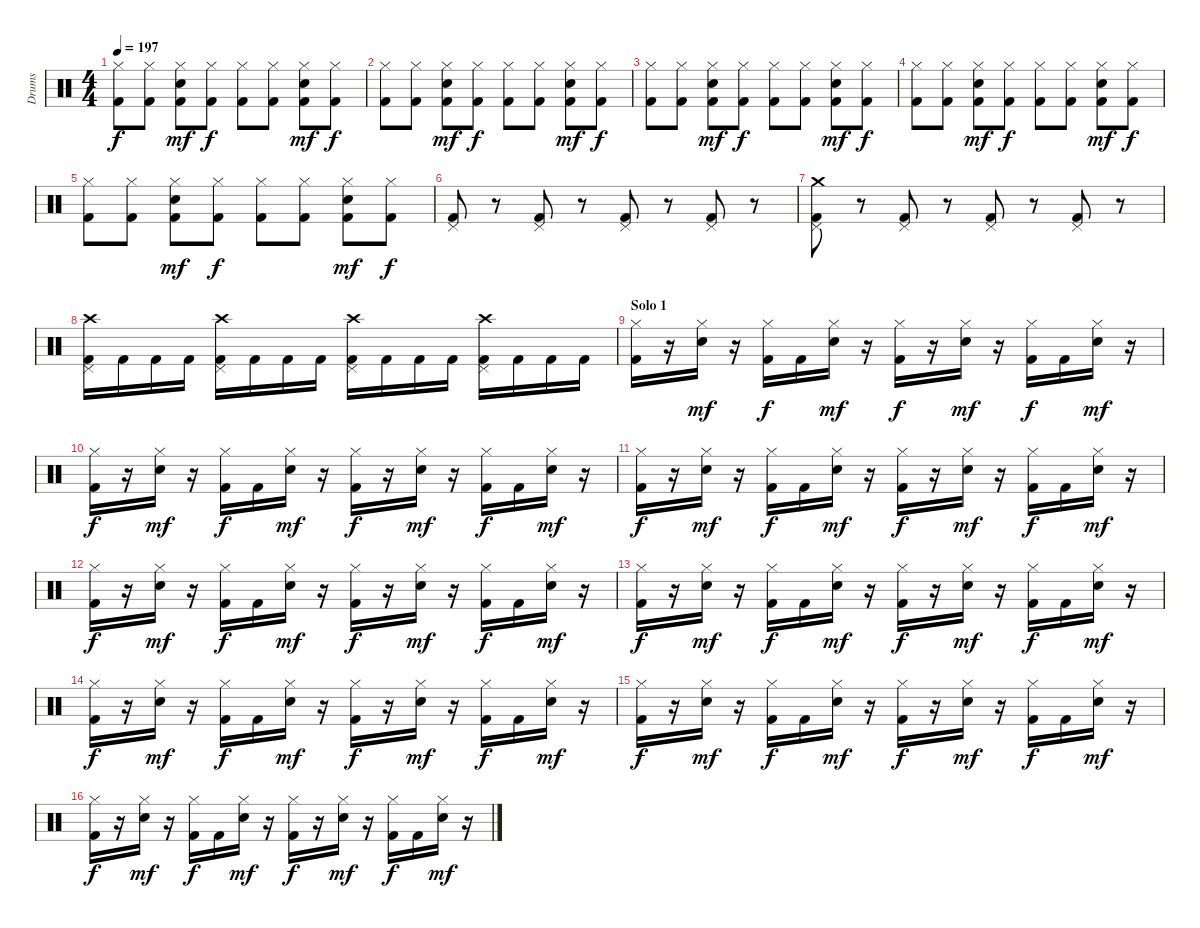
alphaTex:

\track ("Drums" "Drums") {instrument percussion}
\staff {score}
\articulation defaults
\ts (4 4)
\tempo 197
\clef neutral
\ks c
("Kick (hit) 2" "Hi-Hat (closed)").8{dy f} ("Kick (hit) 2" "Hi-Hat (closed)").8 ("Kick (hit) 2" "Snare (hit) 2" "Hi-Hat (closed)").8{dy mf} ("Kick (hit) 2" "Hi-Hat (closed)").8{dy f} ("Kick (hit) 2" "Hi-Hat (closed)").8 ("Kick (hit) 2" "Hi-Hat (closed)").8 ("Kick (hit) 2" "Snare (hit) 2" "Hi-Hat (closed)").8{dy mf} ("Kick (hit) 2" "Hi-Hat (closed)").8{dy f} |
("Kick (hit) 2" "Hi-Hat (closed)").8 ("Kick (hit) 2" "Hi-Hat (closed)").8 ("Kick (hit) 2" "Snare (hit) 2" "Hi-Hat (closed)").8{dy mf} ("Kick (hit) 2" "Hi-Hat (closed)").8{dy f} ("Kick (hit) 2" "Hi-Hat (closed)").8 ("Kick (hit) 2" "Hi-Hat (closed)").8 ("Kick (hit) 2" "Snare (hit) 2" "Hi-Hat (closed)").8{dy mf} ("Kick (hit) 2" "Hi-Hat (closed)").8{dy f} |
("Kick (hit) 2" "Hi-Hat (closed)").8 ("Kick (hit) 2" "Hi-Hat (closed)").8 ("Kick (hit) 2" "Snare (hit) 2" "Hi-Hat (closed)").8{dy mf} ("Kick (hit) 2" "Hi-Hat (closed)").8{dy f} ("Kick (hit) 2" "Hi-Hat (closed)").8 ("Kick (hit) 2" "Hi-Hat (closed)").8 ("Kick (hit) 2" "Snare (hit) 2" "Hi-Hat (closed)").8{dy mf} ("Kick (hit) 2" "Hi-Hat (closed)").8{dy f} |
("Kick (hit) 2" "Hi-Hat (closed)").8 ("Kick (hit) 2" "Hi-Hat (closed)").8 ("Kick (hit) 2" "Snare (hit) 2" "Hi-Hat (closed)").8{dy mf} ("Kick (hit) 2" "Hi-Hat (closed)").8{dy f} ("Kick (hit) 2" "Hi-Hat (closed)").8 ("Kick (hit) 2" "Hi-Hat (closed)").8 ("Kick (hit) 2" "Snare (hit) 2" "Hi-Hat (closed)").8{dy mf} ("Kick (hit) 2" "Hi-Hat (closed)").8{dy f} |
("Kick (hit) 2" "Hi-Hat (closed)").8 ("Kick (hit) 2" "Hi-Hat (closed)").8 ("Kick (hit) 2" "Snare (hit) 2" "Hi-Hat (closed)").8{dy mf} ("Kick (hit) 2" "Hi-Hat (closed)").8{dy f} ("Kick (hit) 2" "Hi-Hat (closed)").8 ("Kick (hit) 2" "Hi-Hat (closed)").8 ("Kick (hit) 2" "Snare (hit) 2" "Hi-Hat (closed)").8{dy mf} ("Kick (hit) 2" "Hi-Hat (closed)").8{dy f} |
("Kick (hit) 2" "Pedal Hi-Hat (hit)").8 r.8 ("Kick (hit) 2" "Pedal Hi-Hat (hit)").8 r.8 ("Kick (hit) 2" "Pedal Hi-Hat (hit)").8 r.8 ("Kick (hit) 2" "Pedal Hi-Hat (hit)").8 r.8 |
("Kick (hit) 2" "Pedal Hi-Hat (hit)" "Crash medium (hit)").8 r.8 ("Kick (hit) 2" "Pedal Hi-Hat (hit)").8 r.8 ("Kick (hit) 2" "Pedal Hi-Hat (hit)").8 r.8 ("Kick (hit) 2" "Pedal Hi-Hat (hit)").8 r.8 |
("Kick (hit) 2" "Pedal Hi-Hat (hit)" "Crash high (hit)").16 "Kick (hit) 2".16 "Kick (hit) 2".16 "Kick (hit) 2".16 ("Kick (hit) 2" "Pedal Hi-Hat (hit)" "Crash high (hit)").16 "Kick (hit) 2".16 "Kick (hit) 2".16 "Kick (hit) 2".16 ("Kick (hit) 2" "Pedal Hi-Hat (hit)" "Crash high (hit)").16 "Kick (hit) 2".16 "Kick (hit) 2".16 "Kick (hit) 2".16 ("Kick (hit) 2" "Pedal Hi-Hat (hit)" "Crash high (hit)").16 "Kick (hit) 2".16 "Kick (hit) 2".16 "Kick (hit) 2".16 |
\section ("" "Solo 1")
("Kick (hit) 2" "Hi-Hat (closed)").16 r.16 ("Snare (hit) 2" "Hi-Hat (closed)").16{dy mf} r.16 ("Kick (hit) 2" "Hi-Hat (closed)").16{dy f} "Kick (hit) 2".16 ("Snare (hit) 2" "Hi-Hat (closed)").16{dy mf} r.16 ("Kick (hit) 2" "Hi-Hat (closed)").16{dy f} r.16 ("Snare (hit) 2" "Hi-Hat (closed)").16{dy mf} r.16 ("Kick (hit) 2" "Hi-Hat (closed)").16{dy f} "Kick (hit) 2".16 ("Snare (hit) 2" "Hi-Hat (closed)").16{dy mf} r.16 |
("Kick (hit) 2" "Hi-Hat (closed)").16{dy f} r.16 ("Snare (hit) 2" "Hi-Hat (closed)").16{dy mf} r.16 ("Kick (hit) 2" "Hi-Hat (closed)").16{dy f} "Kick (hit) 2".16 ("Snare (hit) 2" "Hi-Hat (closed)").16{dy mf} r.16 ("Kick (hit) 2" "Hi-Hat (closed)").16{dy f} r.16 ("Snare (hit) 2" "Hi-Hat (closed)").16{dy mf} r.16 ("Kick (hit) 2" "Hi-Hat (closed)").16{dy f} "Kick (hit) 2".16 ("Snare (hit) 2" "Hi-Hat (closed)").16{dy mf} r.16 |
("Kick (hit) 2" "Hi-Hat (closed)").16{dy f} r.16 ("Snare (hit) 2" "Hi-Hat (closed)").16{dy mf} r.16 ("Kick (hit) 2" "Hi-Hat (closed)").16{dy f} "Kick (hit) 2".16 ("Snare (hit) 2" "Hi-Hat (closed)").16{dy mf} r.16 ("Kick (hit) 2" "Hi-Hat (closed)").16{dy f} r.16 ("Snare (hit) 2" "Hi-Hat (closed)").16{dy mf} r.16 ("Kick (hit) 2" "Hi-Hat (closed)").16{dy f} "Kick (hit) 2".16 ("Snare (hit) 2" "Hi-Hat (closed)").16{dy mf} r.16 |
("Kick (hit) 2" "Hi-Hat (closed)").16{dy f} r.16 ("Snare (hit) 2" "Hi-Hat (closed)").16{dy mf} r.16 ("Kick (hit) 2" "Hi-Hat (closed)").16{dy f} "Kick (hit) 2".16 ("Snare (hit) 2" "Hi-Hat (closed)").16{dy mf} r.16 ("Kick (hit) 2" "Hi-Hat (closed)").16{dy f} r.16 ("Snare (hit) 2" "Hi-Hat (closed)").16{dy mf} r.16 ("Kick (hit) 2" "Hi-Hat (closed)").16{dy f} "Kick (hit) 2".16 ("Snare (hit) 2" "Hi-Hat (closed)").16{dy mf} r.16 |
("Kick (hit) 2" "Hi-Hat (closed)").16{dy f} r.16 ("Snare (hit) 2" "Hi-Hat (closed)").16{dy mf} r.16 ("Kick (hit) 2" "Hi-Hat (closed)").16{dy f} "Kick (hit) 2".16 ("Snare (hit) 2" "Hi-Hat (closed)").16{dy mf} r.16 ("Kick (hit) 2" "Hi-Hat (closed)").16{dy f} r.16 ("Snare (hit) 2" "Hi-Hat (closed)").16{dy mf} r.16 ("Kick (hit) 2" "Hi-Hat (closed)").16{dy f} "Kick (hit) 2".16 ("Snare (hit) 2" "Hi-Hat (closed)").16{dy mf} r.16 |
("Kick (hit) 2" "Hi-Hat (closed)").16{dy f} r.16 ("Snare (hit) 2" "Hi-Hat (closed)").16{dy mf} r.16 ("Kick (hit) 2" "Hi-Hat (closed)").16{dy f} "Kick (hit) 2".16 ("Snare (hit) 2" "Hi-Hat (closed)").16{dy mf} r.16 ("Kick (hit) 2" "Hi-Hat (closed)").16{dy f} r.16 ("Snare (hit) 2" "Hi-Hat (closed)").16{dy mf} r.16 ("Kick (hit) 2" "Hi-Hat (closed)").16{dy f} "Kick (hit) 2".16 ("Snare (hit) 2" "Hi-Hat (closed)").16{dy mf} r.16 |
("Kick (hit) 2" "Hi-Hat (closed)").16{dy f} r.16 ("Snare (hit) 2" "Hi-Hat (closed)").16{dy mf} r.16 ("Kick (hit) 2" "Hi-Hat (closed)").16{dy f} "Kick (hit) 2".16 ("Snare (hit) 2" "Hi-Hat (closed)").16{dy mf} r.16 ("Kick (hit) 2" "Hi-Hat (closed)").16{dy f} r.16 ("Snare (hit) 2" "Hi-Hat (closed)").16{dy mf} r.16 ("Kick (hit) 2" "Hi-Hat (closed)").16{dy f} "Kick (hit) 2".16 ("Snare (hit) 2" "Hi-Hat (closed)").16{dy mf} r.16 |
("Kick (hit) 2" "Hi-Hat (closed)").16{dy f} r.16 ("Snare (hit) 2" "Hi-Hat (closed)").16{dy mf} r.16 ("Kick (hit) 2" "Hi-Hat (closed)").16{dy f} "Kick (hit) 2".16 ("Snare (hit) 2" "Hi-Hat (closed)").16{dy mf} r.16 ("Kick (hit) 2" "Hi-Hat (closed)").16{dy f} r.16 ("Snare (hit) 2" "Hi-Hat (closed)").16{dy mf} r.16 ("Kick (hit) 2" "Hi-Hat (closed)").16{dy f} "Kick (hit) 2".16 ("Snare (hit) 2" "Hi-Hat (closed)").16{dy mf} r.16
